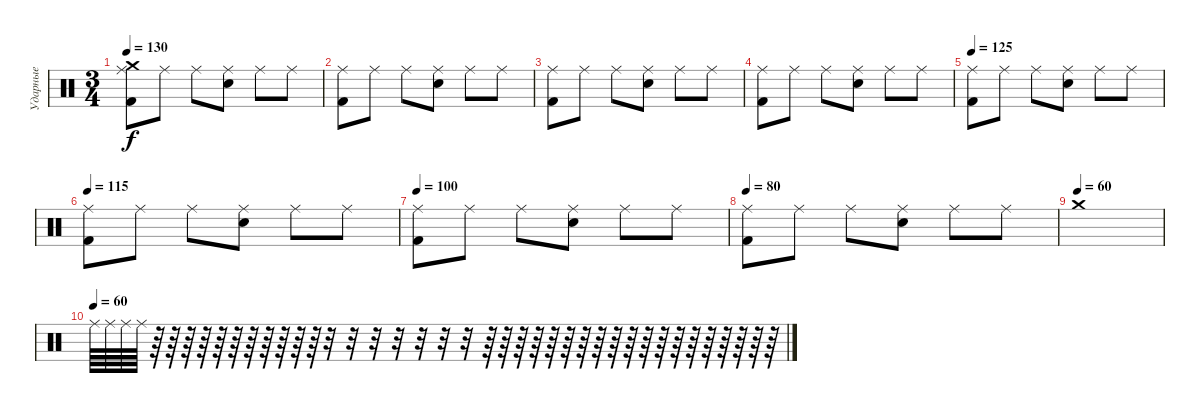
\track ("Ударные" "Ударные") {instrument percussion}
\staff {score}
\articulation defaults
\ts (3 4)
\tempo 130
\clef neutral
\ks c
("Ride (middle)" "Crash medium (hit)" "Kick (hit) 2").8{dy f} "Ride (middle)".8 "Ride (middle)".8 ("Ride (middle)" "Snare (hit) 2").8 "Ride (middle)".8 "Ride (middle)".8 |
("Ride (middle)" "Kick (hit) 2").8 "Ride (middle)".8 "Ride (middle)".8 ("Ride (middle)" "Snare (hit) 2").8 "Ride (middle)".8 "Ride (middle)".8 |
("Ride (middle)" "Kick (hit) 2").8 "Ride (middle)".8 "Ride (middle)".8 ("Ride (middle)" "Snare (hit) 2").8 "Ride (middle)".8 "Ride (middle)".8 |
("Ride (middle)" "Kick (hit) 2").8 "Ride (middle)".8 "Ride (middle)".8 ("Ride (middle)" "Snare (hit) 2").8 "Ride (middle)".8 "Ride (middle)".8 |
\tempo 125
("Ride (middle)" "Kick (hit) 2").8 "Ride (middle)".8 "Ride (middle)".8 ("Ride (middle)" "Snare (hit) 2").8 "Ride (middle)".8 "Ride (middle)".8 |
\tempo 115
("Ride (middle)" "Kick (hit) 2").8 "Ride (middle)".8 "Ride (middle)".8 ("Ride (middle)" "Snare (hit) 2").8 "Ride (middle)".8 "Ride (middle)".8 |
\tempo 100
("Ride (middle)" "Kick (hit) 2").8 "Ride (middle)".8 "Ride (middle)".8 ("Ride (middle)" "Snare (hit) 2").8 "Ride (middle)".8 "Ride (middle)".8 |
\tempo 80
("Ride (middle)" "Kick (hit) 2").8 "Ride (middle)".8 "Ride (middle)".8 ("Ride (middle)" "Snare (hit) 2").8 "Ride (middle)".8 "Ride (middle)".8 |
\tempo (60)
"Crash medium (hit)".1 |
\tempo (60)
"Ride (middle)".64 "Ride (middle)".64 "Ride (middle)".64 "Ride (middle)".64 r.64 r.64 r.64 r.64 r.64 r.64 r.64 r.64 r.64 r.64 r.64 r.32 r.32 r.32 r.32 r.32 r.32 r.32 r.64 r.64 r.64 r.64 r.64 r.64 r.64 r.64 r.64 r.64 r.64 r.64 r.64 r.64 r.64 r.64 r.64 r.64 r.64
